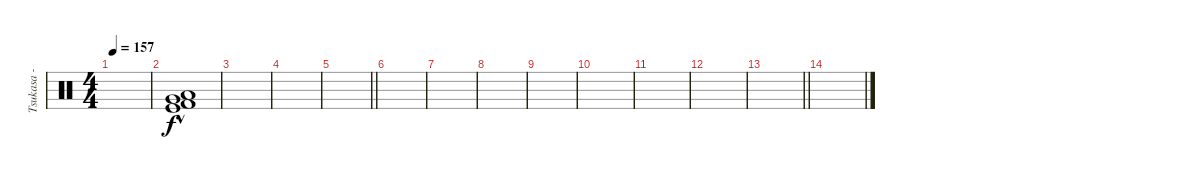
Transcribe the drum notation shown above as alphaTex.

\track ("Tsukasa - Drums [2]" "Tsukasa - ") {instrument percussion}
\staff {score}
\articulation defaults
\ts (4 4)
\tempo 157
\clef neutral
\ks c
|
("Very Low Tom (hit)"{hac} "Low Floor Tom (hit)"{hac} "Kick (hit)"{hac} "Kick (hit) 2"{hac}).1 |
|
|
\barLineRight lightlight
|
\section ("" "")
|
|
|
|
|
|
|
\barLineRight lightlight
|
\section ("" "")
